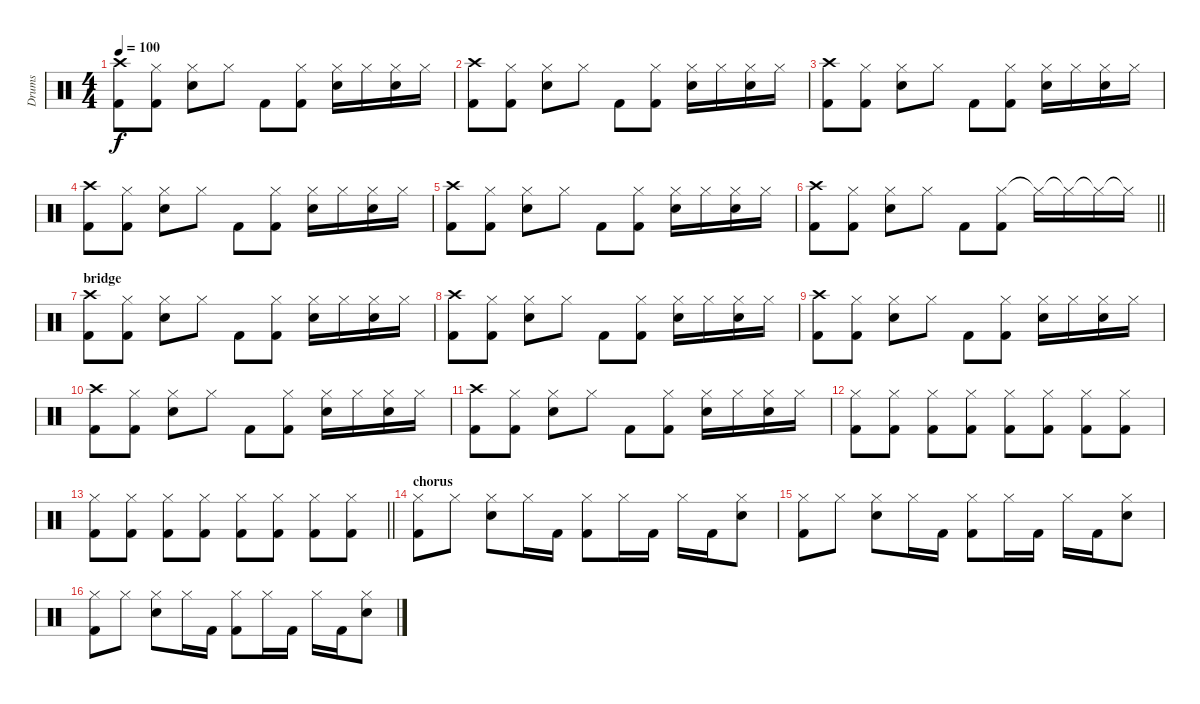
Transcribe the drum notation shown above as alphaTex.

\track ("Drums" "Drums") {instrument percussion}
\staff {score}
\articulation defaults
\ts (4 4)
\tempo 100
\clef neutral
\ks c
("Crash high (hit)" "Kick (hit) 2").8{dy f} ("Hi-Hat (closed)" "Kick (hit) 2").8 ("Hi-Hat (closed)" "Snare (hit) 2").8 "Hi-Hat (closed)".8 "Kick (hit) 2".8 ("Hi-Hat (closed)" "Kick (hit) 2").8 ("Hi-Hat (closed)" "Snare (hit) 2").16 "Hi-Hat (closed)".16 ("Hi-Hat (closed)" "Snare (hit) 2").16 "Hi-Hat (closed)".16 |
("Crash high (hit)" "Kick (hit) 2").8 ("Hi-Hat (closed)" "Kick (hit) 2").8 ("Hi-Hat (closed)" "Snare (hit) 2").8 "Hi-Hat (closed)".8 "Kick (hit) 2".8 ("Hi-Hat (closed)" "Kick (hit) 2").8 ("Hi-Hat (closed)" "Snare (hit) 2").16 "Hi-Hat (closed)".16 ("Hi-Hat (closed)" "Snare (hit) 2").16 "Hi-Hat (closed)".16 |
("Crash high (hit)" "Kick (hit) 2").8 ("Hi-Hat (closed)" "Kick (hit) 2").8 ("Hi-Hat (closed)" "Snare (hit) 2").8 "Hi-Hat (closed)".8 "Kick (hit) 2".8 ("Hi-Hat (closed)" "Kick (hit) 2").8 ("Hi-Hat (closed)" "Snare (hit) 2").16 "Hi-Hat (closed)".16 ("Hi-Hat (closed)" "Snare (hit) 2").16 "Hi-Hat (closed)".16 |
("Crash high (hit)" "Kick (hit) 2").8 ("Hi-Hat (closed)" "Kick (hit) 2").8 ("Hi-Hat (closed)" "Snare (hit) 2").8 "Hi-Hat (closed)".8 "Kick (hit) 2".8 ("Hi-Hat (closed)" "Kick (hit) 2").8 ("Hi-Hat (closed)" "Snare (hit) 2").16 "Hi-Hat (closed)".16 ("Hi-Hat (closed)" "Snare (hit) 2").16 "Hi-Hat (closed)".16 |
("Crash high (hit)" "Kick (hit) 2").8 ("Hi-Hat (closed)" "Kick (hit) 2").8 ("Hi-Hat (closed)" "Snare (hit) 2").8 "Hi-Hat (closed)".8 "Kick (hit) 2".8 ("Hi-Hat (closed)" "Kick (hit) 2").8 ("Hi-Hat (closed)" "Snare (hit) 2").16 "Hi-Hat (closed)".16 ("Hi-Hat (closed)" "Snare (hit) 2").16 "Hi-Hat (closed)".16 |
\barLineRight lightlight
("Crash high (hit)" "Kick (hit) 2").8 ("Hi-Hat (closed)" "Kick (hit) 2").8 ("Hi-Hat (closed)" "Snare (hit) 2").8 "Hi-Hat (closed)".8 "Kick (hit) 2".8 ("Hi-Hat (closed)" "Kick (hit) 2").8 "Hi-Hat (closed)"{t}.16 "Hi-Hat (closed)"{t}.16 "Hi-Hat (closed)"{t}.16 "Hi-Hat (closed)"{t}.16 |
\section ("" "bridge")
("Crash high (hit)" "Kick (hit) 2").8 ("Hi-Hat (closed)" "Kick (hit) 2").8 ("Hi-Hat (closed)" "Snare (hit) 2").8 "Hi-Hat (closed)".8 "Kick (hit) 2".8 ("Hi-Hat (closed)" "Kick (hit) 2").8 ("Hi-Hat (closed)" "Snare (hit) 2").16 "Hi-Hat (closed)".16 ("Hi-Hat (closed)" "Snare (hit) 2").16 "Hi-Hat (closed)".16 |
("Crash high (hit)" "Kick (hit) 2").8 ("Hi-Hat (closed)" "Kick (hit) 2").8 ("Hi-Hat (closed)" "Snare (hit) 2").8 "Hi-Hat (closed)".8 "Kick (hit) 2".8 ("Hi-Hat (closed)" "Kick (hit) 2").8 ("Hi-Hat (closed)" "Snare (hit) 2").16 "Hi-Hat (closed)".16 ("Hi-Hat (closed)" "Snare (hit) 2").16 "Hi-Hat (closed)".16 |
("Crash high (hit)" "Kick (hit) 2").8 ("Hi-Hat (closed)" "Kick (hit) 2").8 ("Hi-Hat (closed)" "Snare (hit) 2").8 "Hi-Hat (closed)".8 "Kick (hit) 2".8 ("Hi-Hat (closed)" "Kick (hit) 2").8 ("Hi-Hat (closed)" "Snare (hit) 2").16 "Hi-Hat (closed)".16 ("Hi-Hat (closed)" "Snare (hit) 2").16 "Hi-Hat (closed)".16 |
("Crash high (hit)" "Kick (hit) 2").8 ("Hi-Hat (closed)" "Kick (hit) 2").8 ("Hi-Hat (closed)" "Snare (hit) 2").8 "Hi-Hat (closed)".8 "Kick (hit) 2".8 ("Hi-Hat (closed)" "Kick (hit) 2").8 ("Hi-Hat (closed)" "Snare (hit) 2").16 "Hi-Hat (closed)".16 ("Hi-Hat (closed)" "Snare (hit) 2").16 "Hi-Hat (closed)".16 |
("Crash high (hit)" "Kick (hit) 2").8 ("Hi-Hat (closed)" "Kick (hit) 2").8 ("Hi-Hat (closed)" "Snare (hit) 2").8 "Hi-Hat (closed)".8 "Kick (hit) 2".8 ("Hi-Hat (closed)" "Kick (hit) 2").8 ("Hi-Hat (closed)" "Snare (hit) 2").16 "Hi-Hat (closed)".16 ("Hi-Hat (closed)" "Snare (hit) 2").16 "Hi-Hat (closed)".16 |
("Hi-Hat (closed)" "Kick (hit) 2").8 ("Hi-Hat (closed)" "Kick (hit) 2").8 ("Hi-Hat (closed)" "Kick (hit) 2").8 ("Hi-Hat (closed)" "Kick (hit) 2").8 ("Hi-Hat (closed)" "Kick (hit) 2").8 ("Hi-Hat (closed)" "Kick (hit) 2").8 ("Hi-Hat (closed)" "Kick (hit) 2").8 ("Hi-Hat (closed)" "Kick (hit) 2").8 |
\barLineRight lightlight
("Hi-Hat (closed)" "Kick (hit) 2").8 ("Hi-Hat (closed)" "Kick (hit) 2").8 ("Hi-Hat (closed)" "Kick (hit) 2").8 ("Hi-Hat (closed)" "Kick (hit) 2").8 ("Hi-Hat (closed)" "Kick (hit) 2").8 ("Hi-Hat (closed)" "Kick (hit) 2").8 ("Hi-Hat (closed)" "Kick (hit) 2").8 ("Hi-Hat (closed)" "Kick (hit) 2").8 |
\section ("" "chorus")
("Hi-Hat (closed)" "Kick (hit) 2").8 "Hi-Hat (closed)".8 ("Hi-Hat (closed)" "Snare (hit) 2").8 "Hi-Hat (closed)".16 "Kick (hit) 2".16 ("Hi-Hat (closed)" "Kick (hit) 2").8 "Hi-Hat (closed)".16 "Kick (hit) 2".16 "Hi-Hat (closed)".16 "Kick (hit) 2".16 ("Hi-Hat (closed)" "Snare (hit) 2").8 |
("Hi-Hat (closed)" "Kick (hit) 2").8 "Hi-Hat (closed)".8 ("Hi-Hat (closed)" "Snare (hit) 2").8 "Hi-Hat (closed)".16 "Kick (hit) 2".16 ("Hi-Hat (closed)" "Kick (hit) 2").8 "Hi-Hat (closed)".16 "Kick (hit) 2".16 "Hi-Hat (closed)".16 "Kick (hit) 2".16 ("Hi-Hat (closed)" "Snare (hit) 2").8 |
("Hi-Hat (closed)" "Kick (hit) 2").8 "Hi-Hat (closed)".8 ("Hi-Hat (closed)" "Snare (hit) 2").8 "Hi-Hat (closed)".16 "Kick (hit) 2".16 ("Hi-Hat (closed)" "Kick (hit) 2").8 "Hi-Hat (closed)".16 "Kick (hit) 2".16 "Hi-Hat (closed)".16 "Kick (hit) 2".16 ("Hi-Hat (closed)" "Snare (hit) 2").8
